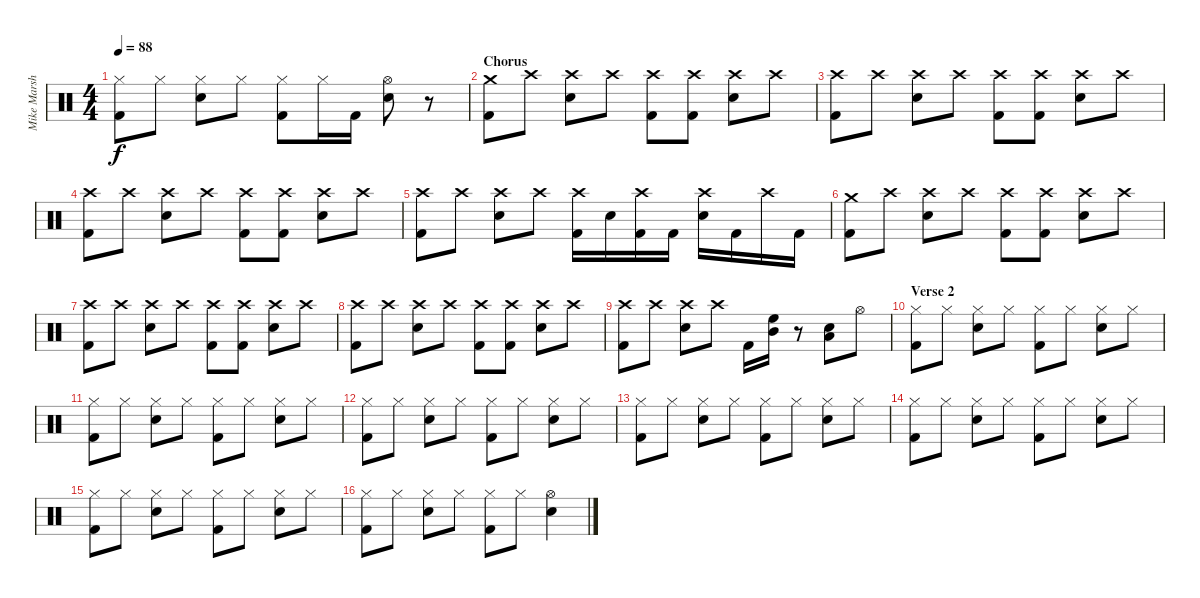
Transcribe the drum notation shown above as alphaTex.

\track ("Mike Marsh" "Mike Marsh") {instrument percussion}
\staff {score}
\articulation defaults
\ts (4 4)
\tempo 88
\clef neutral
\ks c
("Hi-Hat (closed)" "Kick (hit) 2").8{dy f} "Hi-Hat (closed)".8 ("Hi-Hat (closed)" "Snare (hit) 2").8 "Hi-Hat (closed)".8 ("Hi-Hat (closed)" "Kick (hit) 2").8 "Hi-Hat (closed)".16 "Kick (hit) 2".16 ("Hi-Hat (open)" "Snare (hit) 2").8 r.8 |
\section ("" "Chorus")
("Crash medium (hit)" "Kick (hit) 2").8 "Crash high (hit)".8 ("Crash high (hit)" "Snare (hit) 2").8 "Crash high (hit)".8 ("Crash high (hit)" "Kick (hit) 2").8 ("Crash high (hit)" "Kick (hit) 2").8 ("Crash high (hit)" "Snare (hit) 2").8 "Crash high (hit)".8 |
("Crash high (hit)" "Kick (hit) 2").8 "Crash high (hit)".8 ("Crash high (hit)" "Snare (hit) 2").8 "Crash high (hit)".8 ("Crash high (hit)" "Kick (hit) 2").8 ("Crash high (hit)" "Kick (hit) 2").8 ("Crash high (hit)" "Snare (hit) 2").8 "Crash high (hit)".8 |
("Crash high (hit)" "Kick (hit) 2").8 "Crash high (hit)".8 ("Crash high (hit)" "Snare (hit) 2").8 "Crash high (hit)".8 ("Crash high (hit)" "Kick (hit) 2").8 ("Crash high (hit)" "Kick (hit) 2").8 ("Crash high (hit)" "Snare (hit) 2").8 "Crash high (hit)".8 |
("Crash high (hit)" "Kick (hit) 2").8 "Crash high (hit)".8 ("Crash high (hit)" "Snare (hit) 2").8 "Crash high (hit)".8 ("Crash high (hit)" "Kick (hit) 2").16 "Snare (hit) 2".16 ("Crash high (hit)" "Kick (hit) 2").16 "Kick (hit) 2".16 ("Crash high (hit)" "Snare (hit) 2").16 "Kick (hit) 2".16 "Crash high (hit)".16 "Kick (hit) 2".16 |
("Crash medium (hit)" "Kick (hit) 2").8 "Crash high (hit)".8 ("Crash high (hit)" "Snare (hit) 2").8 "Crash high (hit)".8 ("Crash high (hit)" "Kick (hit) 2").8 ("Crash high (hit)" "Kick (hit) 2").8 ("Crash high (hit)" "Snare (hit) 2").8 "Crash high (hit)".8 |
("Crash high (hit)" "Kick (hit) 2").8 "Crash high (hit)".8 ("Crash high (hit)" "Snare (hit) 2").8 "Crash high (hit)".8 ("Crash high (hit)" "Kick (hit) 2").8 ("Crash high (hit)" "Kick (hit) 2").8 ("Crash high (hit)" "Snare (hit) 2").8 "Crash high (hit)".8 |
("Crash high (hit)" "Kick (hit) 2").8 "Crash high (hit)".8 ("Crash high (hit)" "Snare (hit) 2").8 "Crash high (hit)".8 ("Crash high (hit)" "Kick (hit) 2").8 ("Crash high (hit)" "Kick (hit) 2").8 ("Crash high (hit)" "Snare (hit) 2").8 "Crash high (hit)".8 |
("Crash high (hit)" "Kick (hit) 2").8 "Crash high (hit)".8 ("Crash high (hit)" "Snare (hit) 2").8 "Crash high (hit)".8 "Kick (hit) 2".16 ("High Floor Tom (hit)" "Mid Tom (hit)").16 r.8 ("Snare (hit) 2" "Low Tom (hit)").8 "Hi-Hat (open)".8 |
\section ("" "Verse 2")
("Hi-Hat (closed)" "Kick (hit) 2").8 "Hi-Hat (closed)".8 ("Hi-Hat (closed)" "Snare (hit) 2").8 "Hi-Hat (closed)".8 ("Hi-Hat (closed)" "Kick (hit) 2").8 "Hi-Hat (closed)".8 ("Hi-Hat (closed)" "Snare (hit) 2").8 "Hi-Hat (closed)".8 |
("Hi-Hat (closed)" "Kick (hit) 2").8 "Hi-Hat (closed)".8 ("Hi-Hat (closed)" "Snare (hit) 2").8 "Hi-Hat (closed)".8 ("Hi-Hat (closed)" "Kick (hit) 2").8 "Hi-Hat (closed)".8 ("Hi-Hat (closed)" "Snare (hit) 2").8 "Hi-Hat (closed)".8 |
("Hi-Hat (closed)" "Kick (hit) 2").8 "Hi-Hat (closed)".8 ("Hi-Hat (closed)" "Snare (hit) 2").8 "Hi-Hat (closed)".8 ("Hi-Hat (closed)" "Kick (hit) 2").8 "Hi-Hat (closed)".8 ("Hi-Hat (closed)" "Snare (hit) 2").8 "Hi-Hat (closed)".8 |
("Hi-Hat (closed)" "Kick (hit) 2").8 "Hi-Hat (closed)".8 ("Hi-Hat (closed)" "Snare (hit) 2").8 "Hi-Hat (closed)".8 ("Hi-Hat (closed)" "Kick (hit) 2").8 "Hi-Hat (closed)".8 ("Hi-Hat (closed)" "Snare (hit) 2").8 "Hi-Hat (closed)".8 |
("Hi-Hat (closed)" "Kick (hit) 2").8 "Hi-Hat (closed)".8 ("Hi-Hat (closed)" "Snare (hit) 2").8 "Hi-Hat (closed)".8 ("Hi-Hat (closed)" "Kick (hit) 2").8 "Hi-Hat (closed)".8 ("Hi-Hat (closed)" "Snare (hit) 2").8 "Hi-Hat (closed)".8 |
("Hi-Hat (closed)" "Kick (hit) 2").8 "Hi-Hat (closed)".8 ("Hi-Hat (closed)" "Snare (hit) 2").8 "Hi-Hat (closed)".8 ("Hi-Hat (closed)" "Kick (hit) 2").8 "Hi-Hat (closed)".8 ("Hi-Hat (closed)" "Snare (hit) 2").8 "Hi-Hat (closed)".8 |
("Hi-Hat (closed)" "Kick (hit) 2").8 "Hi-Hat (closed)".8 ("Hi-Hat (closed)" "Snare (hit) 2").8 "Hi-Hat (closed)".8 ("Hi-Hat (closed)" "Kick (hit) 2").8 "Hi-Hat (closed)".8 ("Hi-Hat (open)" "Snare (hit) 2").4
